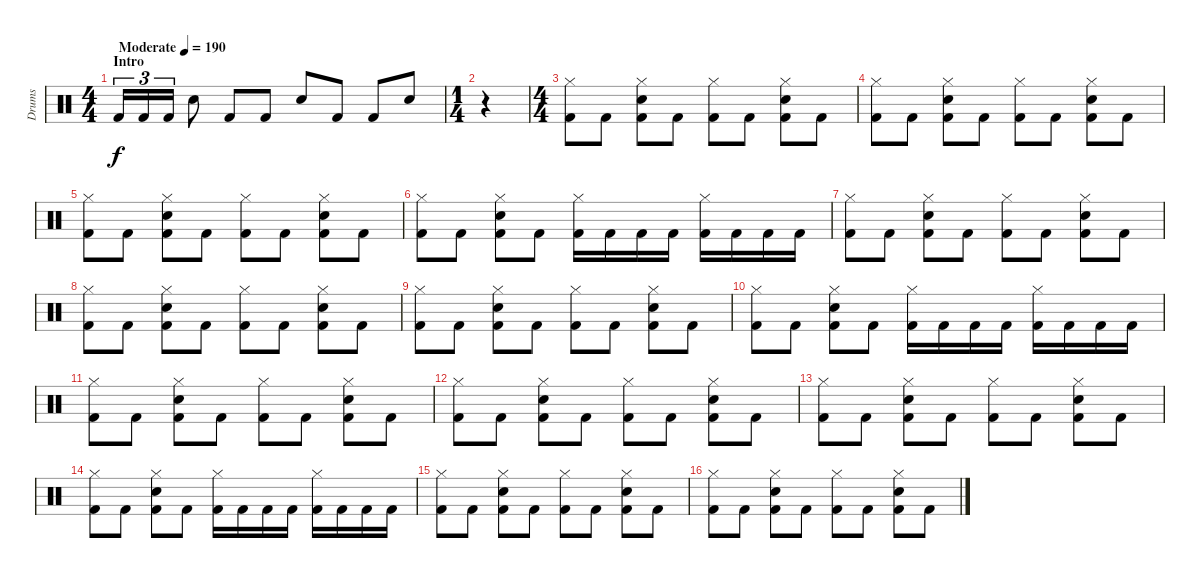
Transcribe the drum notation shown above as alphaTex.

\track ("Drums" "Drums") {instrument percussion}
\staff {score}
\articulation defaults
\ts (4 4)
\section ("" "Intro")
\tempo (190 "Moderate")
\clef neutral
\ks c "Kick (hit) 2".16{tu (3 2) dy f} "Kick (hit) 2".16{tu (3 2)} "Kick (hit) 2".16{tu (3 2)} "Snare (hit) 2".8 "Kick (hit) 2".8 "Kick (hit) 2".8 "Snare (hit) 2".8 "Kick (hit) 2".8 "Kick (hit) 2".8 "Snare (hit) 2".8
|
\ts (1 4)
r.4 |
\ts (4 4)
("Kick (hit) 2" "Hi-Hat (closed)").8 "Kick (hit) 2".8 ("Kick (hit) 2" "Snare (hit) 2" "Hi-Hat (closed)").8 "Kick (hit) 2".8 ("Kick (hit) 2" "Hi-Hat (closed)").8 "Kick (hit) 2".8 ("Kick (hit) 2" "Snare (hit) 2" "Hi-Hat (closed)").8 "Kick (hit) 2".8 |
("Kick (hit) 2" "Hi-Hat (closed)").8 "Kick (hit) 2".8 ("Kick (hit) 2" "Snare (hit) 2" "Hi-Hat (closed)").8 "Kick (hit) 2".8 ("Kick (hit) 2" "Hi-Hat (closed)").8 "Kick (hit) 2".8 ("Kick (hit) 2" "Snare (hit) 2" "Hi-Hat (closed)").8 "Kick (hit) 2".8 |
("Kick (hit) 2" "Hi-Hat (closed)").8 "Kick (hit) 2".8 ("Kick (hit) 2" "Snare (hit) 2" "Hi-Hat (closed)").8 "Kick (hit) 2".8 ("Kick (hit) 2" "Hi-Hat (closed)").8 "Kick (hit) 2".8 ("Kick (hit) 2" "Snare (hit) 2" "Hi-Hat (closed)").8 "Kick (hit) 2".8 |
("Kick (hit) 2" "Hi-Hat (closed)").8 "Kick (hit) 2".8 ("Kick (hit) 2" "Snare (hit) 2" "Hi-Hat (closed)").8 "Kick (hit) 2".8 ("Kick (hit) 2" "Hi-Hat (closed)").16 "Kick (hit) 2".16 "Kick (hit) 2".16 "Kick (hit) 2".16 ("Kick (hit) 2" "Hi-Hat (closed)").16 "Kick (hit) 2".16 "Kick (hit) 2".16 "Kick (hit) 2".16 |
("Kick (hit) 2" "Hi-Hat (closed)").8 "Kick (hit) 2".8 ("Kick (hit) 2" "Snare (hit) 2" "Hi-Hat (closed)").8 "Kick (hit) 2".8 ("Kick (hit) 2" "Hi-Hat (closed)").8 "Kick (hit) 2".8 ("Kick (hit) 2" "Snare (hit) 2" "Hi-Hat (closed)").8 "Kick (hit) 2".8 |
("Kick (hit) 2" "Hi-Hat (closed)").8 "Kick (hit) 2".8 ("Kick (hit) 2" "Snare (hit) 2" "Hi-Hat (closed)").8 "Kick (hit) 2".8 ("Kick (hit) 2" "Hi-Hat (closed)").8 "Kick (hit) 2".8 ("Kick (hit) 2" "Snare (hit) 2" "Hi-Hat (closed)").8 "Kick (hit) 2".8 |
("Kick (hit) 2" "Hi-Hat (closed)").8 "Kick (hit) 2".8 ("Kick (hit) 2" "Snare (hit) 2" "Hi-Hat (closed)").8 "Kick (hit) 2".8 ("Kick (hit) 2" "Hi-Hat (closed)").8 "Kick (hit) 2".8 ("Kick (hit) 2" "Snare (hit) 2" "Hi-Hat (closed)").8 "Kick (hit) 2".8 |
("Kick (hit) 2" "Hi-Hat (closed)").8 "Kick (hit) 2".8 ("Kick (hit) 2" "Snare (hit) 2" "Hi-Hat (closed)").8 "Kick (hit) 2".8 ("Kick (hit) 2" "Hi-Hat (closed)").16 "Kick (hit) 2".16 "Kick (hit) 2".16 "Kick (hit) 2".16 ("Kick (hit) 2" "Hi-Hat (closed)").16 "Kick (hit) 2".16 "Kick (hit) 2".16 "Kick (hit) 2".16 |
("Kick (hit) 2" "Hi-Hat (closed)").8 "Kick (hit) 2".8 ("Kick (hit) 2" "Snare (hit) 2" "Hi-Hat (closed)").8 "Kick (hit) 2".8 ("Kick (hit) 2" "Hi-Hat (closed)").8 "Kick (hit) 2".8 ("Kick (hit) 2" "Snare (hit) 2" "Hi-Hat (closed)").8 "Kick (hit) 2".8 |
("Kick (hit) 2" "Hi-Hat (closed)").8 "Kick (hit) 2".8 ("Kick (hit) 2" "Snare (hit) 2" "Hi-Hat (closed)").8 "Kick (hit) 2".8 ("Kick (hit) 2" "Hi-Hat (closed)").8 "Kick (hit) 2".8 ("Kick (hit) 2" "Snare (hit) 2" "Hi-Hat (closed)").8 "Kick (hit) 2".8 |
("Kick (hit) 2" "Hi-Hat (closed)").8 "Kick (hit) 2".8 ("Kick (hit) 2" "Snare (hit) 2" "Hi-Hat (closed)").8 "Kick (hit) 2".8 ("Kick (hit) 2" "Hi-Hat (closed)").8 "Kick (hit) 2".8 ("Kick (hit) 2" "Snare (hit) 2" "Hi-Hat (closed)").8 "Kick (hit) 2".8 |
("Kick (hit) 2" "Hi-Hat (closed)").8 "Kick (hit) 2".8 ("Kick (hit) 2" "Snare (hit) 2" "Hi-Hat (closed)").8 "Kick (hit) 2".8 ("Kick (hit) 2" "Hi-Hat (closed)").16 "Kick (hit) 2".16 "Kick (hit) 2".16 "Kick (hit) 2".16 ("Kick (hit) 2" "Hi-Hat (closed)").16 "Kick (hit) 2".16 "Kick (hit) 2".16 "Kick (hit) 2".16 |
("Kick (hit) 2" "Hi-Hat (closed)").8 "Kick (hit) 2".8 ("Kick (hit) 2" "Snare (hit) 2" "Hi-Hat (closed)").8 "Kick (hit) 2".8 ("Kick (hit) 2" "Hi-Hat (closed)").8 "Kick (hit) 2".8 ("Kick (hit) 2" "Snare (hit) 2" "Hi-Hat (closed)").8 "Kick (hit) 2".8 |
("Kick (hit) 2" "Hi-Hat (closed)").8 "Kick (hit) 2".8 ("Kick (hit) 2" "Snare (hit) 2" "Hi-Hat (closed)").8 "Kick (hit) 2".8 ("Kick (hit) 2" "Hi-Hat (closed)").8 "Kick (hit) 2".8 ("Kick (hit) 2" "Snare (hit) 2" "Hi-Hat (closed)").8 "Kick (hit) 2".8
